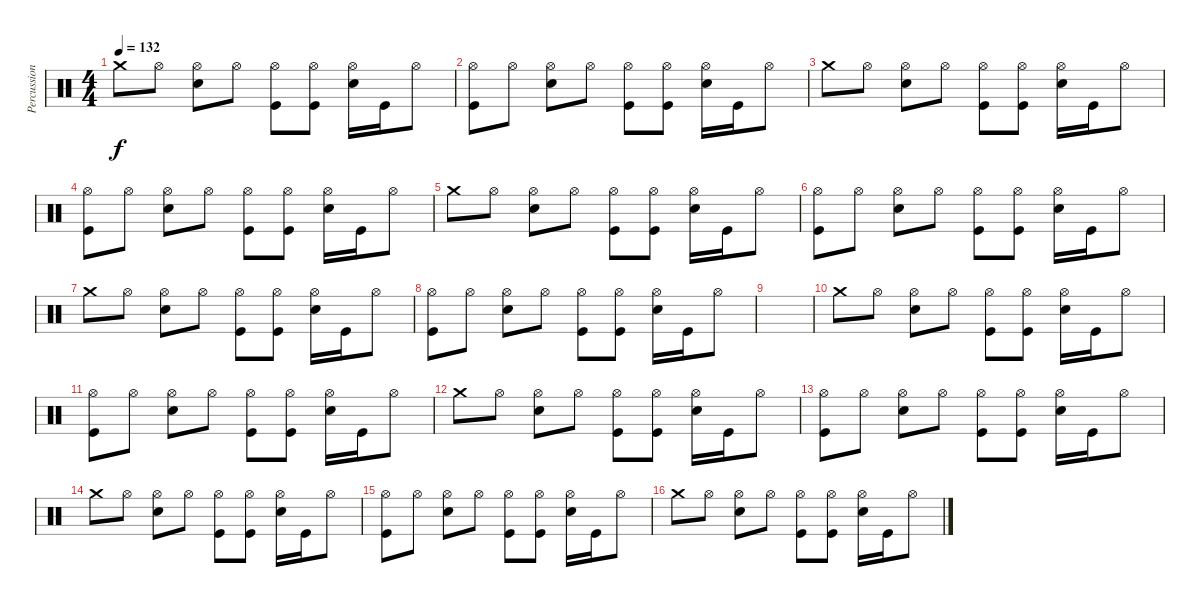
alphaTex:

\track ("Percussions" "Percussion") {instrument percussion}
\staff {score}
\articulation defaults
\ts (4 4)
\tempo 132
\clef neutral
\ks c "Crash medium (hit)".8{dy f} "Hi-Hat (open)".8
("Hi-Hat (open)" "Electric Snare (hit)").8 "Hi-Hat (open)".8 ("Hi-Hat (open)" "Kick (hit)").8 ("Hi-Hat (open)" "Kick (hit)").8 ("Hi-Hat (open)" "Electric Snare (hit)").16 "Kick (hit)".16 "Hi-Hat (open)".8 |
("Hi-Hat (open)" "Kick (hit)").8 "Hi-Hat (open)".8 ("Hi-Hat (open)" "Electric Snare (hit)").8 "Hi-Hat (open)".8 ("Hi-Hat (open)" "Kick (hit)").8 ("Hi-Hat (open)" "Kick (hit)").8 ("Hi-Hat (open)" "Electric Snare (hit)").16 "Kick (hit)".16 "Hi-Hat (open)".8 |
"Crash medium (hit)".8 "Hi-Hat (open)".8 ("Hi-Hat (open)" "Electric Snare (hit)").8 "Hi-Hat (open)".8 ("Hi-Hat (open)" "Kick (hit)").8 ("Hi-Hat (open)" "Kick (hit)").8 ("Hi-Hat (open)" "Electric Snare (hit)").16 "Kick (hit)".16 "Hi-Hat (open)".8 |
("Hi-Hat (open)" "Kick (hit)").8 "Hi-Hat (open)".8 ("Hi-Hat (open)" "Electric Snare (hit)").8 "Hi-Hat (open)".8 ("Hi-Hat (open)" "Kick (hit)").8 ("Hi-Hat (open)" "Kick (hit)").8 ("Hi-Hat (open)" "Electric Snare (hit)").16 "Kick (hit)".16 "Hi-Hat (open)".8 |
"Crash medium (hit)".8 "Hi-Hat (open)".8 ("Hi-Hat (open)" "Electric Snare (hit)").8 "Hi-Hat (open)".8 ("Hi-Hat (open)" "Kick (hit)").8 ("Hi-Hat (open)" "Kick (hit)").8 ("Hi-Hat (open)" "Electric Snare (hit)").16 "Kick (hit)".16 "Hi-Hat (open)".8 |
("Hi-Hat (open)" "Kick (hit)").8 "Hi-Hat (open)".8 ("Hi-Hat (open)" "Electric Snare (hit)").8 "Hi-Hat (open)".8 ("Hi-Hat (open)" "Kick (hit)").8 ("Hi-Hat (open)" "Kick (hit)").8 ("Hi-Hat (open)" "Electric Snare (hit)").16 "Kick (hit)".16 "Hi-Hat (open)".8 |
"Crash medium (hit)".8 "Hi-Hat (open)".8 ("Hi-Hat (open)" "Electric Snare (hit)").8 "Hi-Hat (open)".8 ("Hi-Hat (open)" "Kick (hit)").8 ("Hi-Hat (open)" "Kick (hit)").8 ("Hi-Hat (open)" "Electric Snare (hit)").16 "Kick (hit)".16 "Hi-Hat (open)".8 |
("Hi-Hat (open)" "Kick (hit)").8 "Hi-Hat (open)".8 ("Hi-Hat (open)" "Electric Snare (hit)").8 "Hi-Hat (open)".8 ("Hi-Hat (open)" "Kick (hit)").8 ("Hi-Hat (open)" "Kick (hit)").8 ("Hi-Hat (open)" "Electric Snare (hit)").16 "Kick (hit)".16 "Hi-Hat (open)".8 |
|
"Crash medium (hit)".8 "Hi-Hat (open)".8 ("Hi-Hat (open)" "Electric Snare (hit)").8 "Hi-Hat (open)".8 ("Hi-Hat (open)" "Kick (hit)").8 ("Hi-Hat (open)" "Kick (hit)").8 ("Hi-Hat (open)" "Electric Snare (hit)").16 "Kick (hit)".16 "Hi-Hat (open)".8 |
("Hi-Hat (open)" "Kick (hit)").8 "Hi-Hat (open)".8 ("Hi-Hat (open)" "Electric Snare (hit)").8 "Hi-Hat (open)".8 ("Hi-Hat (open)" "Kick (hit)").8 ("Hi-Hat (open)" "Kick (hit)").8 ("Hi-Hat (open)" "Electric Snare (hit)").16 "Kick (hit)".16 "Hi-Hat (open)".8 |
"Crash medium (hit)".8 "Hi-Hat (open)".8 ("Hi-Hat (open)" "Electric Snare (hit)").8 "Hi-Hat (open)".8 ("Hi-Hat (open)" "Kick (hit)").8 ("Hi-Hat (open)" "Kick (hit)").8 ("Hi-Hat (open)" "Electric Snare (hit)").16 "Kick (hit)".16 "Hi-Hat (open)".8 |
("Hi-Hat (open)" "Kick (hit)").8 "Hi-Hat (open)".8 ("Hi-Hat (open)" "Electric Snare (hit)").8 "Hi-Hat (open)".8 ("Hi-Hat (open)" "Kick (hit)").8 ("Hi-Hat (open)" "Kick (hit)").8 ("Hi-Hat (open)" "Electric Snare (hit)").16 "Kick (hit)".16 "Hi-Hat (open)".8 |
"Crash medium (hit)".8 "Hi-Hat (open)".8 ("Hi-Hat (open)" "Electric Snare (hit)").8 "Hi-Hat (open)".8 ("Hi-Hat (open)" "Kick (hit)").8 ("Hi-Hat (open)" "Kick (hit)").8 ("Hi-Hat (open)" "Electric Snare (hit)").16 "Kick (hit)".16 "Hi-Hat (open)".8 |
("Hi-Hat (open)" "Kick (hit)").8 "Hi-Hat (open)".8 ("Hi-Hat (open)" "Electric Snare (hit)").8 "Hi-Hat (open)".8 ("Hi-Hat (open)" "Kick (hit)").8 ("Hi-Hat (open)" "Kick (hit)").8 ("Hi-Hat (open)" "Electric Snare (hit)").16 "Kick (hit)".16 "Hi-Hat (open)".8 |
"Crash medium (hit)".8 "Hi-Hat (open)".8 ("Hi-Hat (open)" "Electric Snare (hit)").8 "Hi-Hat (open)".8 ("Hi-Hat (open)" "Kick (hit)").8 ("Hi-Hat (open)" "Kick (hit)").8 ("Hi-Hat (open)" "Electric Snare (hit)").16 "Kick (hit)".16 "Hi-Hat (open)".8
